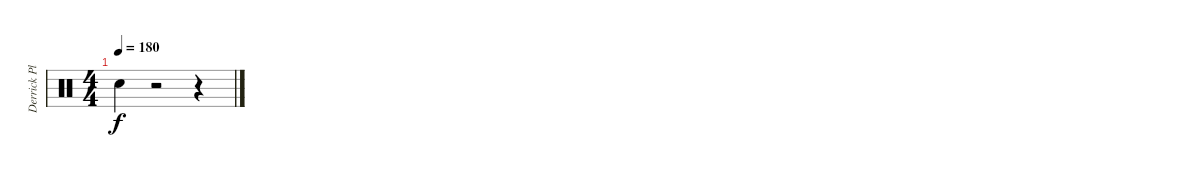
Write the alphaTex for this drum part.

\track ("Derrick Plourde" "Derrick Pl") {instrument percussion}
\staff {score}
\articulation defaults
\ts (4 4)
\tempo 180
\clef neutral
\ks c "Snare (hit)"{t}.4{dy f}
r.2 r.4
